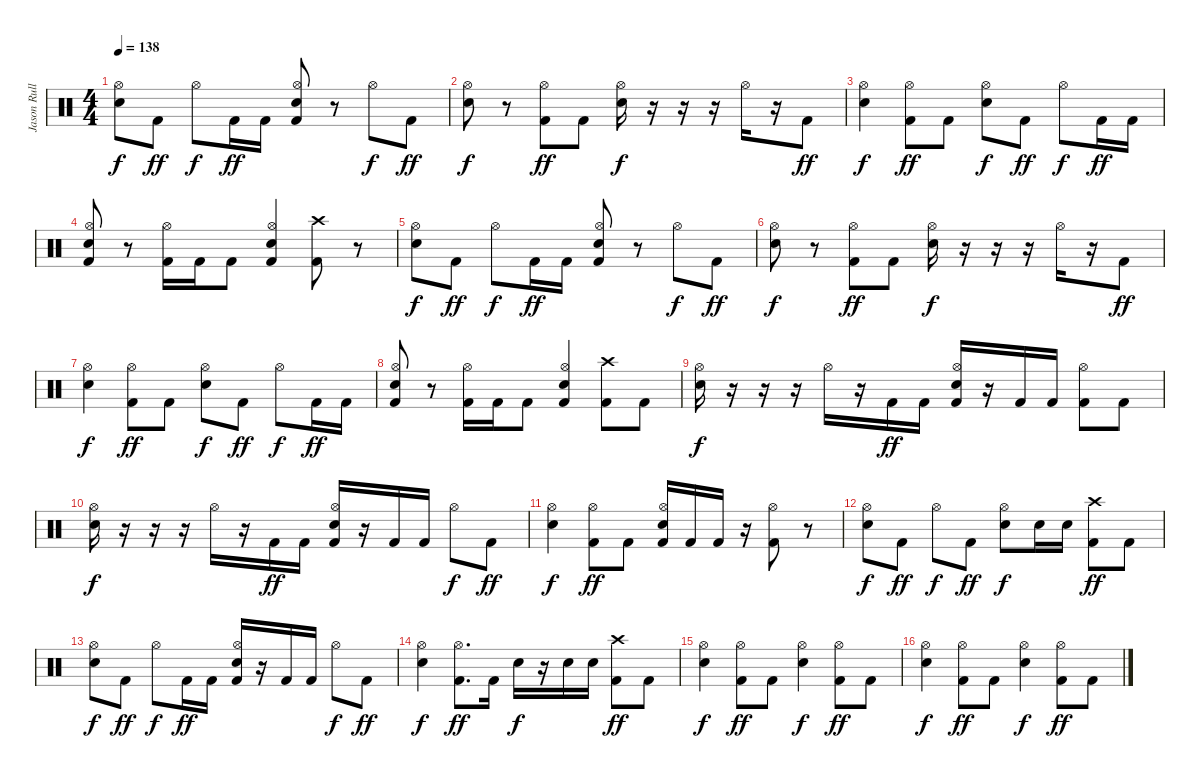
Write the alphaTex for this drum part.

\track ("Jason Rullo" "Jason Rull") {instrument percussion}
\staff {score}
\articulation defaults
\ts (4 4)
\tempo 138
\clef neutral
\ks c
("Electric Snare (hit)" "Hi-Hat (open)").8{dy f} "Kick (hit) 2".8{dy ff} "Hi-Hat (open)".8{dy f} "Kick (hit) 2".16{dy ff} "Kick (hit) 2".16 ("Kick (hit) 2" "Electric Snare (hit)" "Hi-Hat (open)").8 r.8 "Hi-Hat (open)".8{dy f} "Kick (hit) 2".8{dy ff} |
("Electric Snare (hit)" "Hi-Hat (open)").8{dy f} r.8 ("Kick (hit) 2" "Hi-Hat (open)").8{dy ff} "Kick (hit) 2".8 ("Electric Snare (hit)" "Hi-Hat (open)").16{dy f} r.16 r.16 r.16 "Hi-Hat (open)".16 r.16 "Kick (hit) 2".8{dy ff} |
("Electric Snare (hit)" "Hi-Hat (open)").4{dy f} ("Kick (hit) 2" "Hi-Hat (open)").8{dy ff} "Kick (hit) 2".8 ("Electric Snare (hit)" "Hi-Hat (open)").8{dy f} "Kick (hit) 2".8{dy ff} "Hi-Hat (open)".8{dy f} "Kick (hit) 2".16{dy ff} "Kick (hit) 2".16 |
("Kick (hit) 2" "Electric Snare (hit)" "Hi-Hat (open)").8 r.8 ("Kick (hit) 2" "Hi-Hat (open)").16 "Kick (hit) 2".16 "Kick (hit) 2".8 ("Kick (hit) 2" "Electric Snare (hit)" "Hi-Hat (open)").4 ("Kick (hit) 2" "Crash high (hit)").8 r.8 |
("Electric Snare (hit)" "Hi-Hat (open)").8{dy f} "Kick (hit) 2".8{dy ff} "Hi-Hat (open)".8{dy f} "Kick (hit) 2".16{dy ff} "Kick (hit) 2".16 ("Kick (hit) 2" "Electric Snare (hit)" "Hi-Hat (open)").8 r.8 "Hi-Hat (open)".8{dy f} "Kick (hit) 2".8{dy ff} |
("Electric Snare (hit)" "Hi-Hat (open)").8{dy f} r.8 ("Kick (hit) 2" "Hi-Hat (open)").8{dy ff} "Kick (hit) 2".8 ("Electric Snare (hit)" "Hi-Hat (open)").16{dy f} r.16 r.16 r.16 "Hi-Hat (open)".16 r.16 "Kick (hit) 2".8{dy ff} |
("Electric Snare (hit)" "Hi-Hat (open)").4{dy f} ("Kick (hit) 2" "Hi-Hat (open)").8{dy ff} "Kick (hit) 2".8 ("Electric Snare (hit)" "Hi-Hat (open)").8{dy f} "Kick (hit) 2".8{dy ff} "Hi-Hat (open)".8{dy f} "Kick (hit) 2".16{dy ff} "Kick (hit) 2".16 |
("Kick (hit) 2" "Electric Snare (hit)" "Hi-Hat (open)").8 r.8 ("Kick (hit) 2" "Hi-Hat (open)").16 "Kick (hit) 2".16 "Kick (hit) 2".8 ("Kick (hit) 2" "Electric Snare (hit)" "Hi-Hat (open)").4 ("Kick (hit) 2" "Crash high (hit)").8 "Kick (hit) 2".8 |
("Electric Snare (hit)" "Hi-Hat (open)").16{dy f} r.16 r.16 r.16 "Hi-Hat (open)".16 r.16 "Kick (hit) 2".16{dy ff} "Kick (hit) 2".16 ("Kick (hit) 2" "Electric Snare (hit)" "Hi-Hat (open)").16 r.16 "Kick (hit) 2".16 "Kick (hit) 2".16 ("Kick (hit) 2" "Hi-Hat (open)").8 "Kick (hit) 2".8 |
("Electric Snare (hit)" "Hi-Hat (open)").16{dy f} r.16 r.16 r.16 "Hi-Hat (open)".16 r.16 "Kick (hit) 2".16{dy ff} "Kick (hit) 2".16 ("Kick (hit) 2" "Electric Snare (hit)" "Hi-Hat (open)").16 r.16 "Kick (hit) 2".16 "Kick (hit) 2".16 "Hi-Hat (open)".8{dy f} "Kick (hit) 2".8{dy ff} |
("Electric Snare (hit)" "Hi-Hat (open)").4{dy f} ("Kick (hit) 2" "Hi-Hat (open)").8{dy ff} "Kick (hit) 2".8 ("Kick (hit) 2" "Electric Snare (hit)" "Hi-Hat (open)").16 "Kick (hit) 2".16 "Kick (hit) 2".16 r.16 ("Kick (hit) 2" "Hi-Hat (open)").8 r.8 |
("Electric Snare (hit)" "Hi-Hat (open)").8{dy f} "Kick (hit) 2".8{dy ff} "Hi-Hat (open)".8{dy f} "Kick (hit) 2".8{dy ff} ("Electric Snare (hit)" "Hi-Hat (open)").8{dy f} "Electric Snare (hit)".16 "Electric Snare (hit)".16 ("Kick (hit) 2" "Crash high (hit)").8{dy ff} "Kick (hit) 2".8 |
("Electric Snare (hit)" "Hi-Hat (open)").8{dy f} "Kick (hit) 2".8{dy ff} "Hi-Hat (open)".8{dy f} "Kick (hit) 2".16{dy ff} "Kick (hit) 2".16 ("Kick (hit) 2" "Electric Snare (hit)" "Hi-Hat (open)").16 r.16 "Kick (hit) 2".16 "Kick (hit) 2".16 "Hi-Hat (open)".8{dy f} "Kick (hit) 2".8{dy ff} |
("Electric Snare (hit)" "Hi-Hat (open)").4{dy f} ("Kick (hit) 2" "Hi-Hat (open)").8{d dy ff} "Kick (hit) 2".16 "Electric Snare (hit)".16{dy f} r.16 "Electric Snare (hit)".16 "Electric Snare (hit)".16 ("Kick (hit) 2" "Crash high (hit)").8{dy ff} "Kick (hit) 2".8 |
("Electric Snare (hit)" "Hi-Hat (open)").4{dy f} ("Kick (hit) 2" "Hi-Hat (open)").8{dy ff} "Kick (hit) 2".8 ("Electric Snare (hit)" "Hi-Hat (open)").4{dy f} ("Kick (hit) 2" "Hi-Hat (open)").8{dy ff} "Kick (hit) 2".8 |
("Electric Snare (hit)" "Hi-Hat (open)").4{dy f} ("Kick (hit) 2" "Hi-Hat (open)").8{dy ff} "Kick (hit) 2".8 ("Electric Snare (hit)" "Hi-Hat (open)").4{dy f} ("Kick (hit) 2" "Hi-Hat (open)").8{dy ff} "Kick (hit) 2".8
